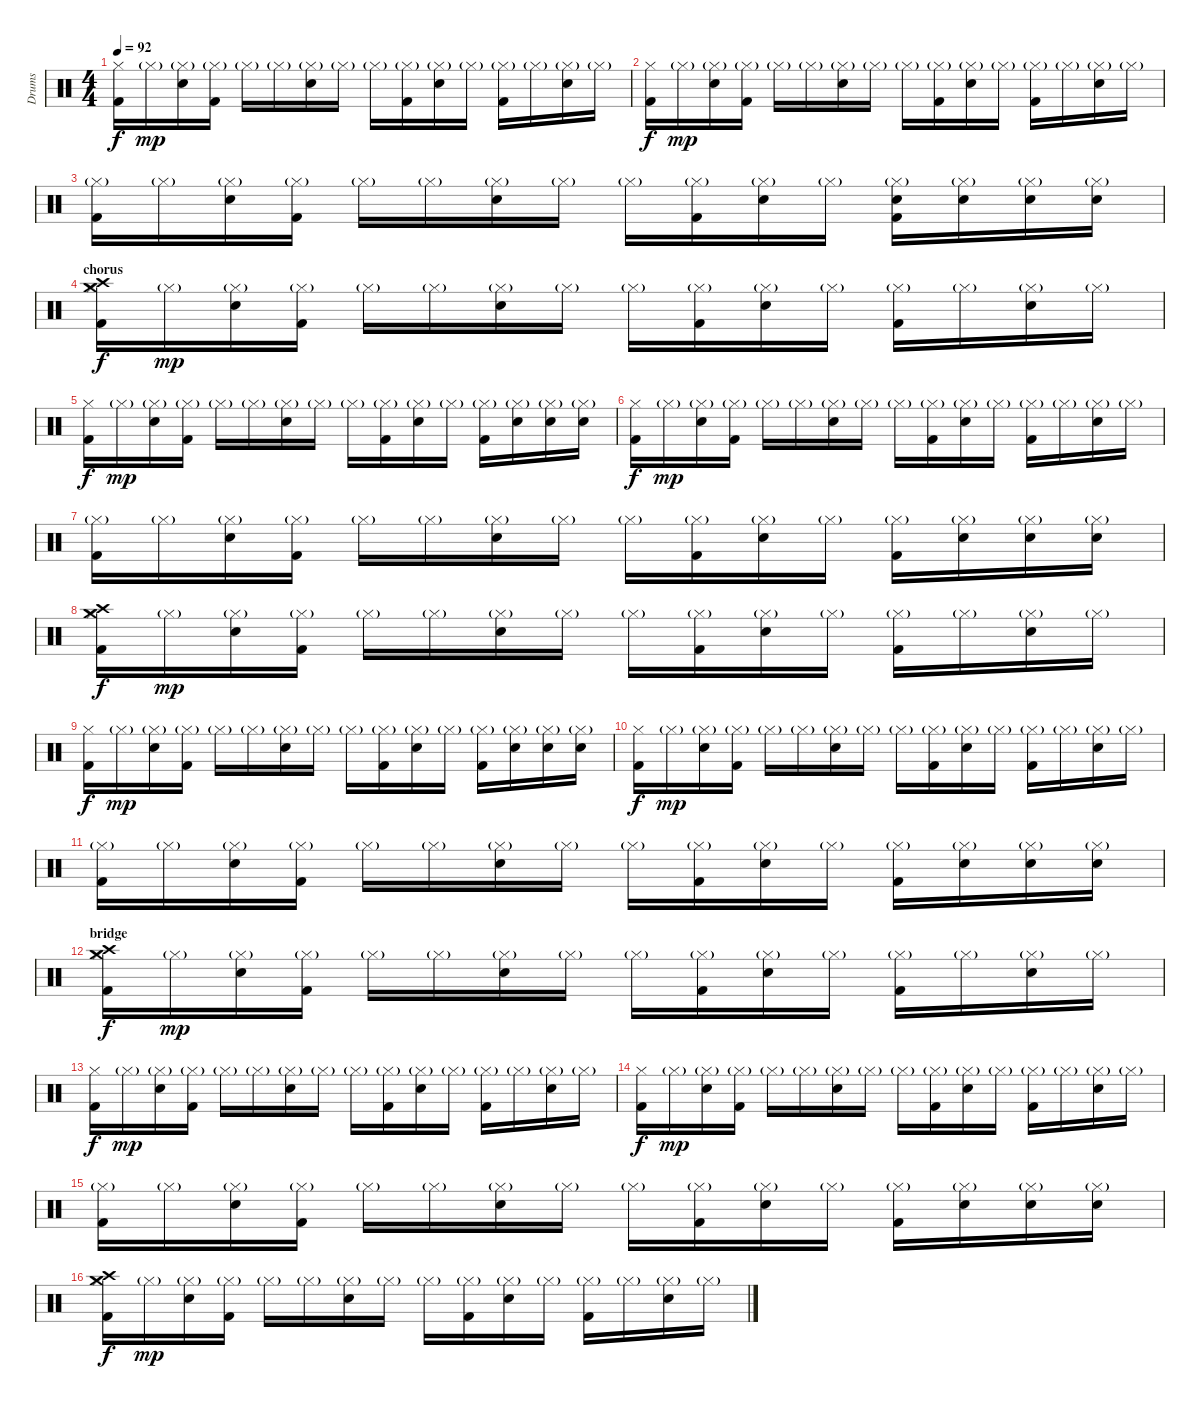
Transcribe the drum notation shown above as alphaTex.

\track ("Drums" "Drums") {instrument percussion}
\staff {score}
\articulation defaults
\ts (4 4)
\tempo 92
\clef neutral
\ks c
("Hi-Hat (closed)" "Kick (hit) 2").16{dy f} "Hi-Hat (closed)"{g}.16{dy mp} ("Hi-Hat (closed)"{g} "Snare (hit) 2").16 ("Hi-Hat (closed)"{g} "Kick (hit) 2").16 "Hi-Hat (closed)"{g}.16 "Hi-Hat (closed)"{g}.16 ("Hi-Hat (closed)"{g} "Snare (hit) 2").16 "Hi-Hat (closed)"{g}.16 "Hi-Hat (closed)"{g}.16 ("Hi-Hat (closed)"{g} "Kick (hit) 2").16 ("Hi-Hat (closed)"{g} "Snare (hit) 2").16 "Hi-Hat (closed)"{g}.16 ("Hi-Hat (closed)"{g} "Kick (hit) 2").16 "Hi-Hat (closed)"{g}.16 ("Hi-Hat (closed)"{g} "Snare (hit) 2").16 "Hi-Hat (closed)"{g}.16 |
("Hi-Hat (closed)" "Kick (hit) 2").16{dy f} "Hi-Hat (closed)"{g}.16{dy mp} ("Hi-Hat (closed)"{g} "Snare (hit) 2").16 ("Hi-Hat (closed)"{g} "Kick (hit) 2").16 "Hi-Hat (closed)"{g}.16 "Hi-Hat (closed)"{g}.16 ("Hi-Hat (closed)"{g} "Snare (hit) 2").16 "Hi-Hat (closed)"{g}.16 "Hi-Hat (closed)"{g}.16 ("Hi-Hat (closed)"{g} "Kick (hit) 2").16 ("Hi-Hat (closed)"{g} "Snare (hit) 2").16 "Hi-Hat (closed)"{g}.16 ("Hi-Hat (closed)"{g} "Kick (hit) 2").16 "Hi-Hat (closed)"{g}.16 ("Hi-Hat (closed)"{g} "Snare (hit) 2").16 "Hi-Hat (closed)"{g}.16 |
("Hi-Hat (closed)"{g} "Kick (hit) 2").16 "Hi-Hat (closed)"{g}.16 ("Hi-Hat (closed)"{g} "Snare (hit) 2").16 ("Hi-Hat (closed)"{g} "Kick (hit) 2").16 "Hi-Hat (closed)"{g}.16 "Hi-Hat (closed)"{g}.16 ("Hi-Hat (closed)"{g} "Snare (hit) 2").16 "Hi-Hat (closed)"{g}.16 "Hi-Hat (closed)"{g}.16 ("Hi-Hat (closed)"{g} "Kick (hit) 2").16 ("Hi-Hat (closed)"{g} "Snare (hit) 2").16 "Hi-Hat (closed)"{g}.16 ("Hi-Hat (closed)"{g} "Kick (hit) 2" "Snare (hit) 2").16 ("Hi-Hat (closed)"{g} "Snare (hit) 2").16 ("Hi-Hat (closed)"{g} "Snare (hit) 2").16 ("Hi-Hat (closed)"{g} "Snare (hit) 2").16 |
\section ("" "chorus")
("Hi-Hat (closed)" "Kick (hit) 2" "Crash medium (hit)" "Crash high (hit)").16{dy f} "Hi-Hat (closed)"{g}.16{dy mp} ("Hi-Hat (closed)"{g} "Snare (hit) 2").16 ("Hi-Hat (closed)"{g} "Kick (hit) 2").16 "Hi-Hat (closed)"{g}.16 "Hi-Hat (closed)"{g}.16 ("Hi-Hat (closed)"{g} "Snare (hit) 2").16 "Hi-Hat (closed)"{g}.16 "Hi-Hat (closed)"{g}.16 ("Hi-Hat (closed)"{g} "Kick (hit) 2").16 ("Hi-Hat (closed)"{g} "Snare (hit) 2").16 "Hi-Hat (closed)"{g}.16 ("Hi-Hat (closed)"{g} "Kick (hit) 2").16 "Hi-Hat (closed)"{g}.16 ("Hi-Hat (closed)"{g} "Snare (hit) 2").16 "Hi-Hat (closed)"{g}.16 |
("Hi-Hat (closed)" "Kick (hit) 2").16{dy f} "Hi-Hat (closed)"{g}.16{dy mp} ("Hi-Hat (closed)"{g} "Snare (hit) 2").16 ("Hi-Hat (closed)"{g} "Kick (hit) 2").16 "Hi-Hat (closed)"{g}.16 "Hi-Hat (closed)"{g}.16 ("Hi-Hat (closed)"{g} "Snare (hit) 2").16 "Hi-Hat (closed)"{g}.16 "Hi-Hat (closed)"{g}.16 ("Hi-Hat (closed)"{g} "Kick (hit) 2").16 ("Hi-Hat (closed)"{g} "Snare (hit) 2").16 "Hi-Hat (closed)"{g}.16 ("Hi-Hat (closed)"{g} "Kick (hit) 2").16 ("Hi-Hat (closed)"{g} "Snare (hit) 2").16 ("Hi-Hat (closed)"{g} "Snare (hit) 2").16 ("Hi-Hat (closed)"{g} "Snare (hit) 2").16 |
("Hi-Hat (closed)" "Kick (hit) 2").16{dy f} "Hi-Hat (closed)"{g}.16{dy mp} ("Hi-Hat (closed)"{g} "Snare (hit) 2").16 ("Hi-Hat (closed)"{g} "Kick (hit) 2").16 "Hi-Hat (closed)"{g}.16 "Hi-Hat (closed)"{g}.16 ("Hi-Hat (closed)"{g} "Snare (hit) 2").16 "Hi-Hat (closed)"{g}.16 "Hi-Hat (closed)"{g}.16 ("Hi-Hat (closed)"{g} "Kick (hit) 2").16 ("Hi-Hat (closed)"{g} "Snare (hit) 2").16 "Hi-Hat (closed)"{g}.16 ("Hi-Hat (closed)"{g} "Kick (hit) 2").16 "Hi-Hat (closed)"{g}.16 ("Hi-Hat (closed)"{g} "Snare (hit) 2").16 "Hi-Hat (closed)"{g}.16 |
("Hi-Hat (closed)"{g} "Kick (hit) 2").16 "Hi-Hat (closed)"{g}.16 ("Hi-Hat (closed)"{g} "Snare (hit) 2").16 ("Hi-Hat (closed)"{g} "Kick (hit) 2").16 "Hi-Hat (closed)"{g}.16 "Hi-Hat (closed)"{g}.16 ("Hi-Hat (closed)"{g} "Snare (hit) 2").16 "Hi-Hat (closed)"{g}.16 "Hi-Hat (closed)"{g}.16 ("Hi-Hat (closed)"{g} "Kick (hit) 2").16 ("Hi-Hat (closed)"{g} "Snare (hit) 2").16 "Hi-Hat (closed)"{g}.16 ("Hi-Hat (closed)"{g} "Kick (hit) 2").16 ("Hi-Hat (closed)"{g} "Snare (hit) 2").16 ("Hi-Hat (closed)"{g} "Snare (hit) 2").16 ("Hi-Hat (closed)"{g} "Snare (hit) 2").16 |
("Hi-Hat (closed)" "Kick (hit) 2" "Crash medium (hit)" "Crash high (hit)").16{dy f} "Hi-Hat (closed)"{g}.16{dy mp} ("Hi-Hat (closed)"{g} "Snare (hit) 2").16 ("Hi-Hat (closed)"{g} "Kick (hit) 2").16 "Hi-Hat (closed)"{g}.16 "Hi-Hat (closed)"{g}.16 ("Hi-Hat (closed)"{g} "Snare (hit) 2").16 "Hi-Hat (closed)"{g}.16 "Hi-Hat (closed)"{g}.16 ("Hi-Hat (closed)"{g} "Kick (hit) 2").16 ("Hi-Hat (closed)"{g} "Snare (hit) 2").16 "Hi-Hat (closed)"{g}.16 ("Hi-Hat (closed)"{g} "Kick (hit) 2").16 "Hi-Hat (closed)"{g}.16 ("Hi-Hat (closed)"{g} "Snare (hit) 2").16 "Hi-Hat (closed)"{g}.16 |
("Hi-Hat (closed)" "Kick (hit) 2").16{dy f} "Hi-Hat (closed)"{g}.16{dy mp} ("Hi-Hat (closed)"{g} "Snare (hit) 2").16 ("Hi-Hat (closed)"{g} "Kick (hit) 2").16 "Hi-Hat (closed)"{g}.16 "Hi-Hat (closed)"{g}.16 ("Hi-Hat (closed)"{g} "Snare (hit) 2").16 "Hi-Hat (closed)"{g}.16 "Hi-Hat (closed)"{g}.16 ("Hi-Hat (closed)"{g} "Kick (hit) 2").16 ("Hi-Hat (closed)"{g} "Snare (hit) 2").16 "Hi-Hat (closed)"{g}.16 ("Hi-Hat (closed)"{g} "Kick (hit) 2").16 ("Hi-Hat (closed)"{g} "Snare (hit) 2").16 ("Hi-Hat (closed)"{g} "Snare (hit) 2").16 ("Hi-Hat (closed)"{g} "Snare (hit) 2").16 |
("Hi-Hat (closed)" "Kick (hit) 2").16{dy f} "Hi-Hat (closed)"{g}.16{dy mp} ("Hi-Hat (closed)"{g} "Snare (hit) 2").16 ("Hi-Hat (closed)"{g} "Kick (hit) 2").16 "Hi-Hat (closed)"{g}.16 "Hi-Hat (closed)"{g}.16 ("Hi-Hat (closed)"{g} "Snare (hit) 2").16 "Hi-Hat (closed)"{g}.16 "Hi-Hat (closed)"{g}.16 ("Hi-Hat (closed)"{g} "Kick (hit) 2").16 ("Hi-Hat (closed)"{g} "Snare (hit) 2").16 "Hi-Hat (closed)"{g}.16 ("Hi-Hat (closed)"{g} "Kick (hit) 2").16 "Hi-Hat (closed)"{g}.16 ("Hi-Hat (closed)"{g} "Snare (hit) 2").16 "Hi-Hat (closed)"{g}.16 |
("Hi-Hat (closed)"{g} "Kick (hit) 2").16 "Hi-Hat (closed)"{g}.16 ("Hi-Hat (closed)"{g} "Snare (hit) 2").16 ("Hi-Hat (closed)"{g} "Kick (hit) 2").16 "Hi-Hat (closed)"{g}.16 "Hi-Hat (closed)"{g}.16 ("Hi-Hat (closed)"{g} "Snare (hit) 2").16 "Hi-Hat (closed)"{g}.16 "Hi-Hat (closed)"{g}.16 ("Hi-Hat (closed)"{g} "Kick (hit) 2").16 ("Hi-Hat (closed)"{g} "Snare (hit) 2").16 "Hi-Hat (closed)"{g}.16 ("Hi-Hat (closed)"{g} "Kick (hit) 2").16 ("Hi-Hat (closed)"{g} "Snare (hit) 2").16 ("Hi-Hat (closed)"{g} "Snare (hit) 2").16 ("Hi-Hat (closed)"{g} "Snare (hit) 2").16 |
\section ("" "bridge")
("Hi-Hat (closed)" "Kick (hit) 2" "Crash medium (hit)" "Crash high (hit)").16{dy f} "Hi-Hat (closed)"{g}.16{dy mp} ("Hi-Hat (closed)"{g} "Snare (hit) 2").16 ("Hi-Hat (closed)"{g} "Kick (hit) 2").16 "Hi-Hat (closed)"{g}.16 "Hi-Hat (closed)"{g}.16 ("Hi-Hat (closed)"{g} "Snare (hit) 2").16 "Hi-Hat (closed)"{g}.16 "Hi-Hat (closed)"{g}.16 ("Hi-Hat (closed)"{g} "Kick (hit) 2").16 ("Hi-Hat (closed)"{g} "Snare (hit) 2").16 "Hi-Hat (closed)"{g}.16 ("Hi-Hat (closed)"{g} "Kick (hit) 2").16 "Hi-Hat (closed)"{g}.16 ("Hi-Hat (closed)"{g} "Snare (hit) 2").16 "Hi-Hat (closed)"{g}.16 |
("Hi-Hat (closed)" "Kick (hit) 2").16{dy f} "Hi-Hat (closed)"{g}.16{dy mp} ("Hi-Hat (closed)"{g} "Snare (hit) 2").16 ("Hi-Hat (closed)"{g} "Kick (hit) 2").16 "Hi-Hat (closed)"{g}.16 "Hi-Hat (closed)"{g}.16 ("Hi-Hat (closed)"{g} "Snare (hit) 2").16 "Hi-Hat (closed)"{g}.16 "Hi-Hat (closed)"{g}.16 ("Hi-Hat (closed)"{g} "Kick (hit) 2").16 ("Hi-Hat (closed)"{g} "Snare (hit) 2").16 "Hi-Hat (closed)"{g}.16 ("Hi-Hat (closed)"{g} "Kick (hit) 2").16 "Hi-Hat (closed)"{g}.16 ("Hi-Hat (closed)"{g} "Snare (hit) 2").16 "Hi-Hat (closed)"{g}.16 |
("Hi-Hat (closed)" "Kick (hit) 2").16{dy f} "Hi-Hat (closed)"{g}.16{dy mp} ("Hi-Hat (closed)"{g} "Snare (hit) 2").16 ("Hi-Hat (closed)"{g} "Kick (hit) 2").16 "Hi-Hat (closed)"{g}.16 "Hi-Hat (closed)"{g}.16 ("Hi-Hat (closed)"{g} "Snare (hit) 2").16 "Hi-Hat (closed)"{g}.16 "Hi-Hat (closed)"{g}.16 ("Hi-Hat (closed)"{g} "Kick (hit) 2").16 ("Hi-Hat (closed)"{g} "Snare (hit) 2").16 "Hi-Hat (closed)"{g}.16 ("Hi-Hat (closed)"{g} "Kick (hit) 2").16 "Hi-Hat (closed)"{g}.16 ("Hi-Hat (closed)"{g} "Snare (hit) 2").16 "Hi-Hat (closed)"{g}.16 |
("Hi-Hat (closed)"{g} "Kick (hit) 2").16 "Hi-Hat (closed)"{g}.16 ("Hi-Hat (closed)"{g} "Snare (hit) 2").16 ("Hi-Hat (closed)"{g} "Kick (hit) 2").16 "Hi-Hat (closed)"{g}.16 "Hi-Hat (closed)"{g}.16 ("Hi-Hat (closed)"{g} "Snare (hit) 2").16 "Hi-Hat (closed)"{g}.16 "Hi-Hat (closed)"{g}.16 ("Hi-Hat (closed)"{g} "Kick (hit) 2").16 ("Hi-Hat (closed)"{g} "Snare (hit) 2").16 "Hi-Hat (closed)"{g}.16 ("Hi-Hat (closed)"{g} "Kick (hit) 2").16 ("Hi-Hat (closed)"{g} "Snare (hit) 2").16 ("Hi-Hat (closed)"{g} "Snare (hit) 2").16 ("Hi-Hat (closed)"{g} "Snare (hit) 2").16 |
("Hi-Hat (closed)" "Kick (hit) 2" "Crash medium (hit)" "Crash high (hit)").16{dy f} "Hi-Hat (closed)"{g}.16{dy mp} ("Hi-Hat (closed)"{g} "Snare (hit) 2").16 ("Hi-Hat (closed)"{g} "Kick (hit) 2").16 "Hi-Hat (closed)"{g}.16 "Hi-Hat (closed)"{g}.16 ("Hi-Hat (closed)"{g} "Snare (hit) 2").16 "Hi-Hat (closed)"{g}.16 "Hi-Hat (closed)"{g}.16 ("Hi-Hat (closed)"{g} "Kick (hit) 2").16 ("Hi-Hat (closed)"{g} "Snare (hit) 2").16 "Hi-Hat (closed)"{g}.16 ("Hi-Hat (closed)"{g} "Kick (hit) 2").16 "Hi-Hat (closed)"{g}.16 ("Hi-Hat (closed)"{g} "Snare (hit) 2").16 "Hi-Hat (closed)"{g}.16
